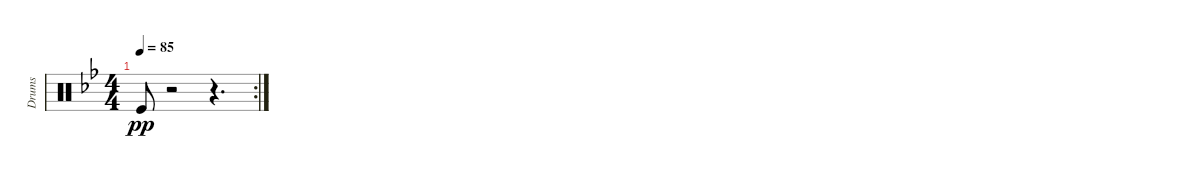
\track ("Drums" "Drums") {instrument percussion}
\staff {score}
\articulation defaults
\rc 2
\ts (4 4)
\tempo 85
\clef neutral
\ks gminor "Kick (hit)".8{dy pp}
r.2 r.4{d}
